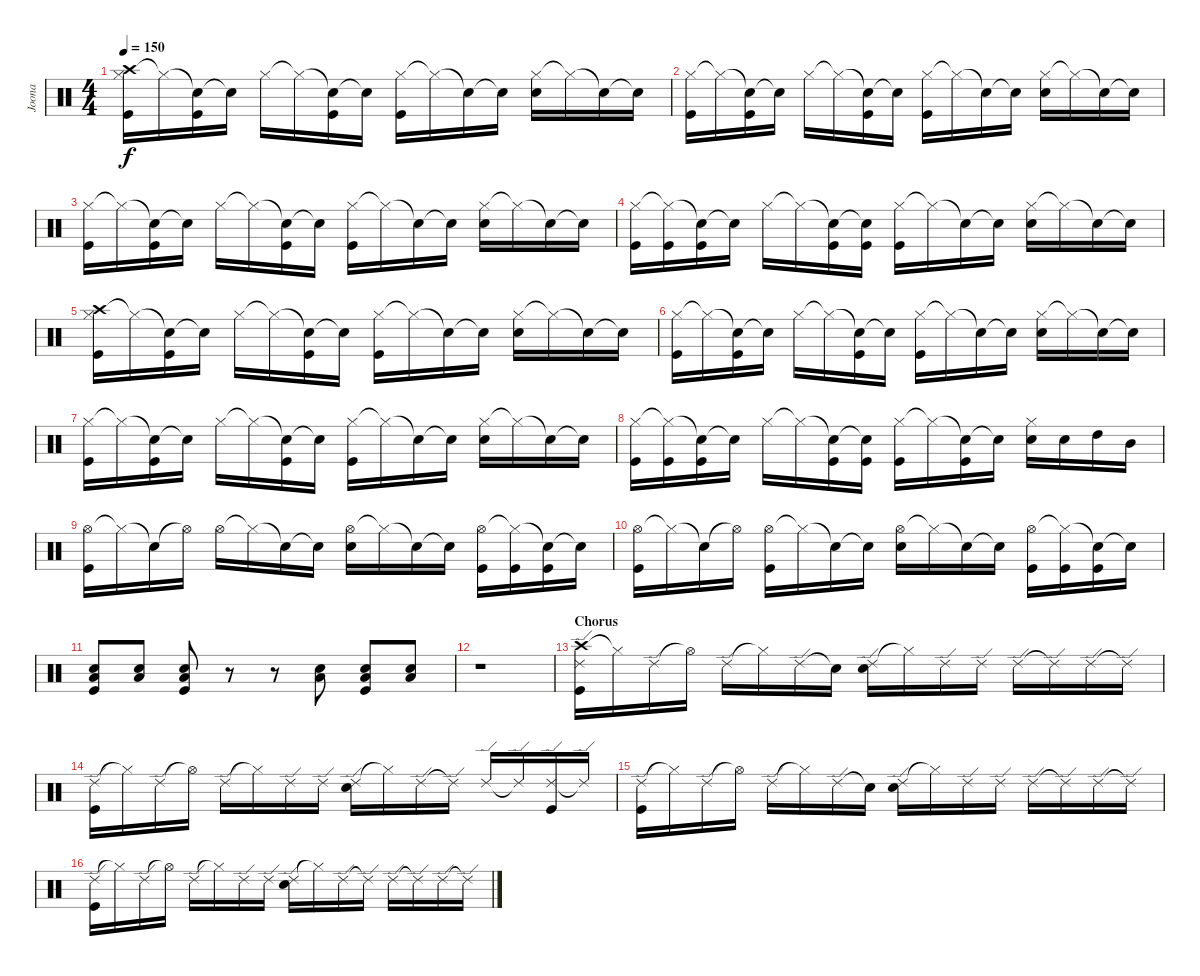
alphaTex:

\track ("Joona" "Joona") {instrument percussion}
\staff {score}
\articulation defaults
\ts (4 4)
\tempo 150
\clef neutral
\ks c
("Crash high (hit)" "Hi-Hat (closed)" "Kick (hit)").16{dy f} "Hi-Hat (closed)"{t}.16 ("Snare (hit)"{t} "Kick (hit)").16 "Snare (hit)"{t}.16 "Hi-Hat (closed)".16 "Hi-Hat (closed)"{t}.16 ("Snare (hit)"{t} "Kick (hit)").16 "Snare (hit)"{t}.16 ("Hi-Hat (closed)" "Kick (hit)").16 "Hi-Hat (closed)"{t}.16 "Snare (hit)"{t}.16 "Snare (hit)"{t}.16 ("Hi-Hat (closed)" "Snare (hit) 2").16 "Hi-Hat (closed)"{t}.16 "Snare (hit)"{t}.16 "Snare (hit)"{t}.16 |
("Hi-Hat (closed)" "Kick (hit)").16 "Hi-Hat (closed)"{t}.16 ("Snare (hit)"{t} "Kick (hit)").16 "Snare (hit)"{t}.16 "Hi-Hat (closed)".16 "Hi-Hat (closed)"{t}.16 ("Snare (hit)"{t} "Kick (hit)").16 "Snare (hit)"{t}.16 ("Hi-Hat (closed)" "Kick (hit)").16 "Hi-Hat (closed)"{t}.16 "Snare (hit)"{t}.16 "Snare (hit)"{t}.16 ("Hi-Hat (closed)" "Snare (hit) 2").16 "Hi-Hat (closed)"{t}.16 "Snare (hit)"{t}.16 "Snare (hit)"{t}.16 |
("Hi-Hat (closed)" "Kick (hit)").16 "Hi-Hat (closed)"{t}.16 ("Snare (hit)"{t} "Kick (hit)").16 "Snare (hit)"{t}.16 "Hi-Hat (closed)".16 "Hi-Hat (closed)"{t}.16 ("Snare (hit)"{t} "Kick (hit)").16 "Snare (hit)"{t}.16 ("Hi-Hat (closed)" "Kick (hit)").16 "Hi-Hat (closed)"{t}.16 "Snare (hit)"{t}.16 "Snare (hit)"{t}.16 ("Hi-Hat (closed)" "Snare (hit) 2").16 "Hi-Hat (closed)"{t}.16 "Snare (hit)"{t}.16 "Snare (hit)"{t}.16 |
("Hi-Hat (closed)" "Kick (hit)").16 ("Hi-Hat (closed)"{t} "Kick (hit)").16 ("Snare (hit)"{t} "Kick (hit)").16 "Snare (hit)"{t}.16 "Hi-Hat (closed)".16 "Hi-Hat (closed)"{t}.16 ("Snare (hit)"{t} "Kick (hit)").16 ("Snare (hit)"{t} "Kick (hit)").16 ("Hi-Hat (closed)" "Kick (hit)").16 "Hi-Hat (closed)"{t}.16 "Snare (hit)"{t}.16 "Snare (hit)"{t}.16 ("Hi-Hat (closed)" "Snare (hit) 2").16 "Hi-Hat (closed)"{t}.16 "Snare (hit)"{t}.16 "Snare (hit)"{t}.16 |
("Crash high (hit)" "Hi-Hat (closed)" "Kick (hit)").16 "Hi-Hat (closed)"{t}.16 ("Snare (hit)"{t} "Kick (hit)").16 "Snare (hit)"{t}.16 "Hi-Hat (closed)".16 "Hi-Hat (closed)"{t}.16 ("Snare (hit)"{t} "Kick (hit)").16 "Snare (hit)"{t}.16 ("Hi-Hat (closed)" "Kick (hit)").16 "Hi-Hat (closed)"{t}.16 "Snare (hit)"{t}.16 "Snare (hit)"{t}.16 ("Hi-Hat (closed)" "Snare (hit) 2").16 "Hi-Hat (closed)"{t}.16 "Snare (hit)"{t}.16 "Snare (hit)"{t}.16 |
("Hi-Hat (closed)" "Kick (hit)").16 "Hi-Hat (closed)"{t}.16 ("Snare (hit)"{t} "Kick (hit)").16 "Snare (hit)"{t}.16 "Hi-Hat (closed)".16 "Hi-Hat (closed)"{t}.16 ("Snare (hit)"{t} "Kick (hit)").16 "Snare (hit)"{t}.16 ("Hi-Hat (closed)" "Kick (hit)").16 "Hi-Hat (closed)"{t}.16 "Snare (hit)"{t}.16 "Snare (hit)"{t}.16 ("Hi-Hat (closed)" "Snare (hit) 2").16 "Hi-Hat (closed)"{t}.16 "Snare (hit)"{t}.16 "Snare (hit)"{t}.16 |
("Hi-Hat (closed)" "Kick (hit)").16 "Hi-Hat (closed)"{t}.16 ("Snare (hit)"{t} "Kick (hit)").16 "Snare (hit)"{t}.16 "Hi-Hat (closed)".16 "Hi-Hat (closed)"{t}.16 ("Snare (hit)"{t} "Kick (hit)").16 "Snare (hit)"{t}.16 ("Hi-Hat (closed)" "Kick (hit)").16 "Hi-Hat (closed)"{t}.16 "Snare (hit)"{t}.16 "Snare (hit)"{t}.16 ("Hi-Hat (closed)" "Snare (hit) 2").16 "Hi-Hat (closed)"{t}.16 "Snare (hit)"{t}.16 "Snare (hit)"{t}.16 |
("Hi-Hat (closed)" "Kick (hit)").16 ("Hi-Hat (closed)"{t} "Kick (hit)").16 ("Snare (hit)"{t} "Kick (hit)").16 "Snare (hit)"{t}.16 "Hi-Hat (closed)".16 "Hi-Hat (closed)"{t}.16 ("Snare (hit)"{t} "Kick (hit)").16 ("Snare (hit)"{t} "Kick (hit)").16 ("Hi-Hat (closed)" "Kick (hit)").16 "Hi-Hat (closed)"{t}.16 ("Snare (hit)"{t} "Kick (hit)").16 "Snare (hit)"{t}.16 ("Hi-Hat (closed)" "Snare (hit) 2").16 "Snare (hit) 2".16 "High Tom (hit)".16 "Mid Tom (hit)".16 |
("Hi-Hat (open)" "Kick (hit)").16 "Hi-Hat (closed)"{t}.16 "Snare (hit)"{t}.16 "Hi-Hat (open)"{t}.16 "Hi-Hat (open)".16 "Hi-Hat (closed)"{t}.16 "Snare (hit)"{t}.16 "Snare (hit)"{t}.16 ("Hi-Hat (open)" "Snare (hit) 2").16 "Hi-Hat (closed)"{t}.16 "Snare (hit)"{t}.16 "Snare (hit)"{t}.16 ("Hi-Hat (open)" "Kick (hit)").16 ("Hi-Hat (closed)"{t} "Kick (hit)").16 ("Snare (hit)"{t} "Kick (hit)").16 "Snare (hit)"{t}.16 |
("Hi-Hat (open)" "Kick (hit)").16 "Hi-Hat (closed)"{t}.16 "Snare (hit)"{t}.16 "Hi-Hat (open)"{t}.16 ("Hi-Hat (open)" "Kick (hit)").16 "Hi-Hat (closed)"{t}.16 "Snare (hit)"{t}.16 "Snare (hit)"{t}.16 ("Hi-Hat (open)" "Snare (hit) 2").16 "Hi-Hat (closed)"{t}.16 "Snare (hit)"{t}.16 "Snare (hit)"{t}.16 ("Hi-Hat (open)" "Kick (hit)").16 ("Hi-Hat (closed)"{t} "Kick (hit)").16 ("Snare (hit)"{t} "Kick (hit)").16 "Snare (hit)"{t}.16 |
("Low Tom (hit)" "Snare (hit) 2" "Kick (hit)").8 ("Low Tom (hit)" "Snare (hit) 2").8 ("Low Tom (hit)" "Snare (hit) 2" "Kick (hit)").8 r.8 r.8 ("Low Tom (hit)" "Snare (hit) 2").8 ("Low Tom (hit)" "Snare (hit) 2" "Kick (hit)").8 ("Low Tom (hit)" "Snare (hit) 2").8 |
r.1 |
\section ("" "Chorus")
("Crash high (hit)" "Ride (edge) 2" "Kick (hit)").16 "Hi-Hat (closed)"{t}.16 "Ride (edge) 2".16 "Hi-Hat (open)"{t}.16 "Ride (edge) 2".16 "Hi-Hat (closed)"{t}.16 "Ride (edge) 2".16 "Snare (hit)"{t}.16 ("Ride (edge) 2" "Snare (hit) 2").16 "Hi-Hat (closed)"{t}.16 "Ride (edge) 2".16 "Ride (edge) 2".16 "Ride (edge) 2".16 "Ride (edge) 2"{t}.16 "Ride (edge) 2".16 "Ride (edge) 2"{t}.16 |
("Ride (edge) 2" "Kick (hit)").16 "Hi-Hat (closed)"{t}.16 "Ride (edge) 2".16 "Hi-Hat (open)"{t}.16 "Ride (edge) 2".16 "Hi-Hat (closed)"{t}.16 "Ride (edge) 2".16 "Ride (edge) 2".16 ("Ride (edge) 2" "Snare (hit) 2").16 "Hi-Hat (closed)"{t}.16 "Ride (edge) 2".16 "Ride (edge) 2"{t}.16 "Ride (edge) 2".16 "Ride (edge) 2"{t}.16 ("Ride (edge) 2" "Kick (hit)").16 "Ride (edge) 2"{t}.16 |
("Ride (edge) 2" "Kick (hit)").16 "Hi-Hat (closed)"{t}.16 "Ride (edge) 2".16 "Hi-Hat (open)"{t}.16 "Ride (edge) 2".16 "Hi-Hat (closed)"{t}.16 "Ride (edge) 2".16 "Snare (hit)"{t}.16 ("Ride (edge) 2" "Snare (hit) 2").16 "Hi-Hat (closed)"{t}.16 "Ride (edge) 2".16 "Ride (edge) 2".16 "Ride (edge) 2".16 "Ride (edge) 2"{t}.16 "Ride (edge) 2".16 "Ride (edge) 2"{t}.16 |
("Ride (edge) 2" "Kick (hit)").16 "Hi-Hat (closed)"{t}.16 "Ride (edge) 2".16 "Hi-Hat (open)"{t}.16 "Ride (edge) 2".16 "Hi-Hat (closed)"{t}.16 "Ride (edge) 2".16 "Ride (edge) 2".16 ("Ride (edge) 2" "Snare (hit) 2").16 "Hi-Hat (closed)"{t}.16 "Ride (edge) 2".16 "Ride (edge) 2"{t}.16 "Ride (edge) 2".16 "Ride (edge) 2"{t}.16 "Ride (edge) 2".16 "Ride (edge) 2"{t}.16
